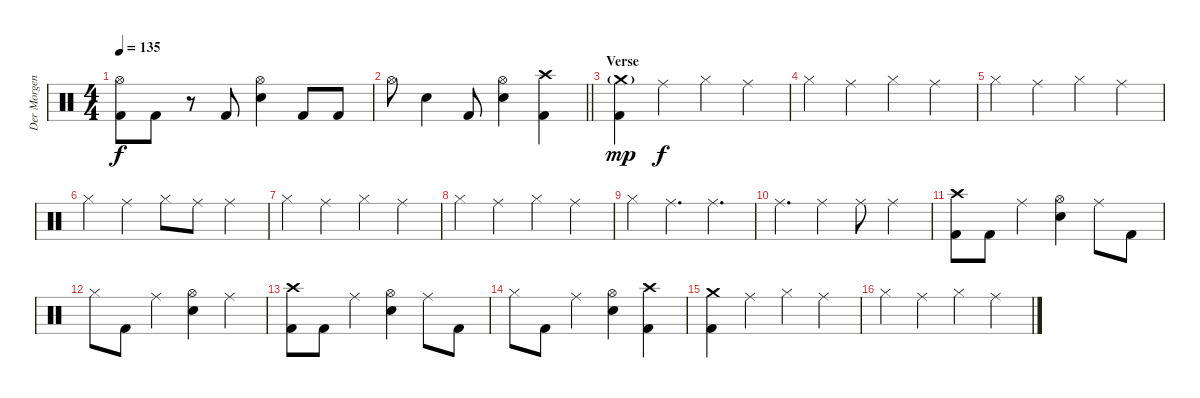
\track ("Der Morgenstern" "Der Morgen") {instrument percussion}
\staff {score}
\articulation defaults
\ts (4 4)
\tempo 135
\clef neutral
\ks c
("Hi-Hat (open)" "Kick (hit) 2").8{dy f} "Kick (hit) 2".8 r.8 "Kick (hit) 2".8 ("Hi-Hat (open)" "Electric Snare (hit)").4 "Kick (hit) 2".8 "Kick (hit) 2".8 |
\barLineRight lightlight "Hi-Hat (open)".8 "Electric Snare (hit)".4 "Kick (hit) 2".8
("Hi-Hat (open)" "Electric Snare (hit)").4 ("Crash high (hit)" "Kick (hit) 2").4 |
\section ("" "Verse")
("Crash medium (hit)"{g} "Kick (hit) 2").4{dy mp} "Ride (middle)".4{dy f} "Hi-Hat (closed)".4 "Ride (middle)".4 |
"Hi-Hat (closed)".4 "Ride (middle)".4 "Hi-Hat (closed)".4 "Ride (middle)".4 |
"Hi-Hat (closed)".4 "Ride (middle)".4 "Hi-Hat (closed)".4 "Ride (middle)".4 |
"Hi-Hat (closed)".4 "Ride (middle)".4 "Hi-Hat (closed)".8 "Ride (middle)".8 "Ride (middle)".4 |
"Hi-Hat (closed)".4 "Ride (middle)".4 "Hi-Hat (closed)".4 "Ride (middle)".4 |
"Hi-Hat (closed)".4 "Ride (middle)".4 "Hi-Hat (closed)".4 "Ride (middle)".4 |
"Hi-Hat (closed)".4 "Ride (middle)".4{d} "Ride (middle)".4{d} |
"Ride (middle)".4{d} "Ride (middle)".4 "Ride (middle)".8 "Ride (middle)".4 |
("Crash high (hit)" "Kick (hit) 2").8 "Kick (hit) 2".8 "Ride (middle)".4 ("Hi-Hat (open)" "Electric Snare (hit)").4 "Ride (middle)".8 "Kick (hit) 2".8 |
"Hi-Hat (closed)".8 "Kick (hit) 2".8 "Ride (middle)".4 ("Hi-Hat (open)" "Electric Snare (hit)").4 "Ride (middle)".4 |
("Crash high (hit)" "Kick (hit) 2").8 "Kick (hit) 2".8 "Ride (middle)".4 ("Hi-Hat (open)" "Electric Snare (hit)").4 "Ride (middle)".8 "Kick (hit) 2".8 |
"Hi-Hat (closed)".8 "Kick (hit) 2".8 "Ride (middle)".4 ("Hi-Hat (open)" "Electric Snare (hit)").4 ("Crash high (hit)" "Kick (hit) 2").4 |
("Crash medium (hit)" "Kick (hit) 2").4 "Ride (middle)".4 "Hi-Hat (closed)".4 "Ride (middle)".4 |
"Hi-Hat (closed)".4 "Ride (middle)".4 "Hi-Hat (closed)".4 "Ride (middle)".4
